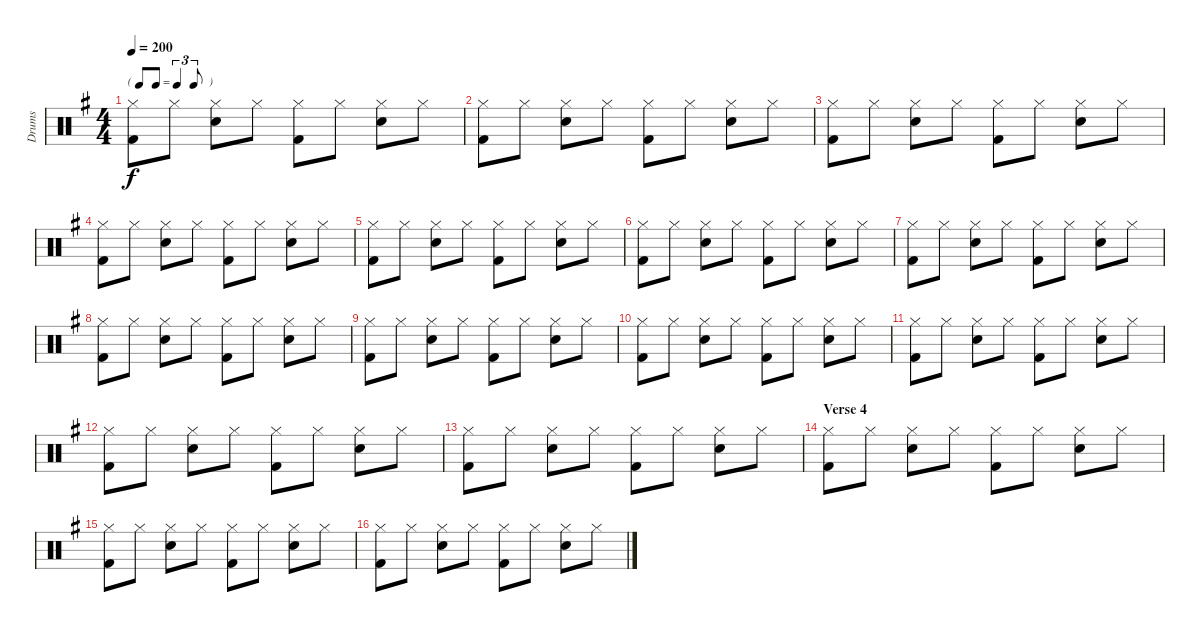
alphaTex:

\track ("Drums" "Drums") {instrument percussion}
\staff {score}
\articulation defaults
\ts (4 4)
\tf triplet8th
\tempo 200
\clef neutral
\ks g
("Hi-Hat (closed)" "Kick (hit) 2").8{dy f} "Hi-Hat (closed)".8 ("Hi-Hat (closed)" "Snare (hit) 2").8 "Hi-Hat (closed)".8 ("Hi-Hat (closed)" "Kick (hit) 2").8 "Hi-Hat (closed)".8 ("Hi-Hat (closed)" "Snare (hit) 2").8 "Hi-Hat (closed)".8 |
("Hi-Hat (closed)" "Kick (hit) 2").8 "Hi-Hat (closed)".8 ("Hi-Hat (closed)" "Snare (hit) 2").8 "Hi-Hat (closed)".8 ("Hi-Hat (closed)" "Kick (hit) 2").8 "Hi-Hat (closed)".8 ("Hi-Hat (closed)" "Snare (hit) 2").8 "Hi-Hat (closed)".8 |
("Hi-Hat (closed)" "Kick (hit) 2").8 "Hi-Hat (closed)".8 ("Hi-Hat (closed)" "Snare (hit) 2").8 "Hi-Hat (closed)".8 ("Hi-Hat (closed)" "Kick (hit) 2").8 "Hi-Hat (closed)".8 ("Hi-Hat (closed)" "Snare (hit) 2").8 "Hi-Hat (closed)".8 |
("Hi-Hat (closed)" "Kick (hit) 2").8 "Hi-Hat (closed)".8 ("Hi-Hat (closed)" "Snare (hit) 2").8 "Hi-Hat (closed)".8 ("Hi-Hat (closed)" "Kick (hit) 2").8 "Hi-Hat (closed)".8 ("Hi-Hat (closed)" "Snare (hit) 2").8 "Hi-Hat (closed)".8 |
("Hi-Hat (closed)" "Kick (hit) 2").8 "Hi-Hat (closed)".8 ("Hi-Hat (closed)" "Snare (hit) 2").8 "Hi-Hat (closed)".8 ("Hi-Hat (closed)" "Kick (hit) 2").8 "Hi-Hat (closed)".8 ("Hi-Hat (closed)" "Snare (hit) 2").8 "Hi-Hat (closed)".8 |
("Hi-Hat (closed)" "Kick (hit) 2").8 "Hi-Hat (closed)".8 ("Hi-Hat (closed)" "Snare (hit) 2").8 "Hi-Hat (closed)".8 ("Hi-Hat (closed)" "Kick (hit) 2").8 "Hi-Hat (closed)".8 ("Hi-Hat (closed)" "Snare (hit) 2").8 "Hi-Hat (closed)".8 |
("Hi-Hat (closed)" "Kick (hit) 2").8 "Hi-Hat (closed)".8 ("Hi-Hat (closed)" "Snare (hit) 2").8 "Hi-Hat (closed)".8 ("Hi-Hat (closed)" "Kick (hit) 2").8 "Hi-Hat (closed)".8 ("Hi-Hat (closed)" "Snare (hit) 2").8 "Hi-Hat (closed)".8 |
("Hi-Hat (closed)" "Kick (hit) 2").8 "Hi-Hat (closed)".8 ("Hi-Hat (closed)" "Snare (hit) 2").8 "Hi-Hat (closed)".8 ("Hi-Hat (closed)" "Kick (hit) 2").8 "Hi-Hat (closed)".8 ("Hi-Hat (closed)" "Snare (hit) 2").8 "Hi-Hat (closed)".8 |
("Hi-Hat (closed)" "Kick (hit) 2").8 "Hi-Hat (closed)".8 ("Hi-Hat (closed)" "Snare (hit) 2").8 "Hi-Hat (closed)".8 ("Hi-Hat (closed)" "Kick (hit) 2").8 "Hi-Hat (closed)".8 ("Hi-Hat (closed)" "Snare (hit) 2").8 "Hi-Hat (closed)".8 |
("Hi-Hat (closed)" "Kick (hit) 2").8 "Hi-Hat (closed)".8 ("Hi-Hat (closed)" "Snare (hit) 2").8 "Hi-Hat (closed)".8 ("Hi-Hat (closed)" "Kick (hit) 2").8 "Hi-Hat (closed)".8 ("Hi-Hat (closed)" "Snare (hit) 2").8 "Hi-Hat (closed)".8 |
("Hi-Hat (closed)" "Kick (hit) 2").8 "Hi-Hat (closed)".8 ("Hi-Hat (closed)" "Snare (hit) 2").8 "Hi-Hat (closed)".8 ("Hi-Hat (closed)" "Kick (hit) 2").8 "Hi-Hat (closed)".8 ("Hi-Hat (closed)" "Snare (hit) 2").8 "Hi-Hat (closed)".8 |
("Hi-Hat (closed)" "Kick (hit) 2").8 "Hi-Hat (closed)".8 ("Hi-Hat (closed)" "Snare (hit) 2").8 "Hi-Hat (closed)".8 ("Hi-Hat (closed)" "Kick (hit) 2").8 "Hi-Hat (closed)".8 ("Hi-Hat (closed)" "Snare (hit) 2").8 "Hi-Hat (closed)".8 |
("Hi-Hat (closed)" "Kick (hit) 2").8 "Hi-Hat (closed)".8 ("Hi-Hat (closed)" "Snare (hit) 2").8 "Hi-Hat (closed)".8 ("Hi-Hat (closed)" "Kick (hit) 2").8 "Hi-Hat (closed)".8 ("Hi-Hat (closed)" "Snare (hit) 2").8 "Hi-Hat (closed)".8 |
\section ("" "Verse 4")
("Hi-Hat (closed)" "Kick (hit) 2").8 "Hi-Hat (closed)".8 ("Hi-Hat (closed)" "Snare (hit) 2").8 "Hi-Hat (closed)".8 ("Hi-Hat (closed)" "Kick (hit) 2").8 "Hi-Hat (closed)".8 ("Hi-Hat (closed)" "Snare (hit) 2").8 "Hi-Hat (closed)".8 |
("Hi-Hat (closed)" "Kick (hit) 2").8 "Hi-Hat (closed)".8 ("Hi-Hat (closed)" "Snare (hit) 2").8 "Hi-Hat (closed)".8 ("Hi-Hat (closed)" "Kick (hit) 2").8 "Hi-Hat (closed)".8 ("Hi-Hat (closed)" "Snare (hit) 2").8 "Hi-Hat (closed)".8 |
("Hi-Hat (closed)" "Kick (hit) 2").8 "Hi-Hat (closed)".8 ("Hi-Hat (closed)" "Snare (hit) 2").8 "Hi-Hat (closed)".8 ("Hi-Hat (closed)" "Kick (hit) 2").8 "Hi-Hat (closed)".8 ("Hi-Hat (closed)" "Snare (hit) 2").8 "Hi-Hat (closed)".8
